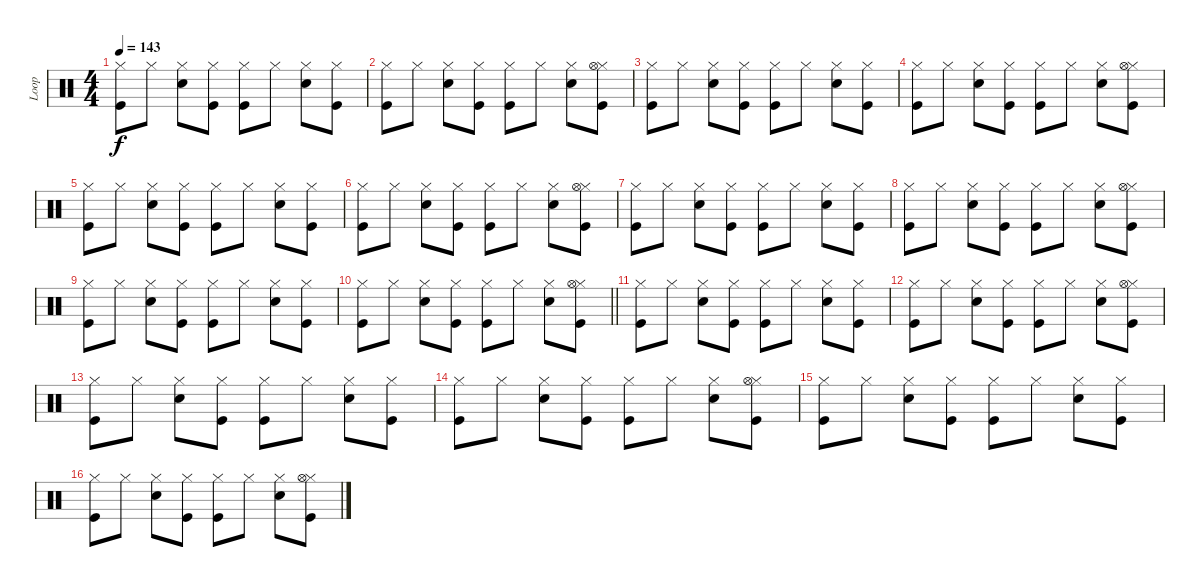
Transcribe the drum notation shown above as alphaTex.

\track ("Loop" "Loop") {instrument percussion}
\staff {score}
\articulation defaults
\ts (4 4)
\tempo 143
\clef neutral
\ks c
("Kick (hit)" "Hi-Hat (closed)").8{dy f} "Hi-Hat (closed)".8 ("Snare (hit) 2" "Hi-Hat (closed)").8 ("Hi-Hat (closed)" "Kick (hit)").8 ("Hi-Hat (closed)" "Kick (hit)").8 "Hi-Hat (closed)".8 ("Hi-Hat (closed)" "Snare (hit) 2").8 ("Hi-Hat (closed)" "Kick (hit)").8 |
("Kick (hit)" "Hi-Hat (closed)").8 "Hi-Hat (closed)".8 ("Snare (hit) 2" "Hi-Hat (closed)").8 ("Hi-Hat (closed)" "Kick (hit)").8 ("Hi-Hat (closed)" "Kick (hit)").8 "Hi-Hat (closed)".8 ("Hi-Hat (closed)" "Snare (hit) 2").8 ("Hi-Hat (closed)" "Kick (hit)" "Hi-Hat (open)").8 |
("Kick (hit)" "Hi-Hat (closed)").8 "Hi-Hat (closed)".8 ("Snare (hit) 2" "Hi-Hat (closed)").8 ("Hi-Hat (closed)" "Kick (hit)").8 ("Hi-Hat (closed)" "Kick (hit)").8 "Hi-Hat (closed)".8 ("Hi-Hat (closed)" "Snare (hit) 2").8 ("Hi-Hat (closed)" "Kick (hit)").8 |
("Kick (hit)" "Hi-Hat (closed)").8 "Hi-Hat (closed)".8 ("Snare (hit) 2" "Hi-Hat (closed)").8 ("Hi-Hat (closed)" "Kick (hit)").8 ("Hi-Hat (closed)" "Kick (hit)").8 "Hi-Hat (closed)".8 ("Hi-Hat (closed)" "Snare (hit) 2").8 ("Hi-Hat (closed)" "Kick (hit)" "Hi-Hat (open)").8 |
("Kick (hit)" "Hi-Hat (closed)").8 "Hi-Hat (closed)".8 ("Snare (hit) 2" "Hi-Hat (closed)").8 ("Hi-Hat (closed)" "Kick (hit)").8 ("Hi-Hat (closed)" "Kick (hit)").8 "Hi-Hat (closed)".8 ("Hi-Hat (closed)" "Snare (hit) 2").8 ("Hi-Hat (closed)" "Kick (hit)").8 |
("Kick (hit)" "Hi-Hat (closed)").8 "Hi-Hat (closed)".8 ("Snare (hit) 2" "Hi-Hat (closed)").8 ("Hi-Hat (closed)" "Kick (hit)").8 ("Hi-Hat (closed)" "Kick (hit)").8 "Hi-Hat (closed)".8 ("Hi-Hat (closed)" "Snare (hit) 2").8 ("Hi-Hat (closed)" "Kick (hit)" "Hi-Hat (open)").8 |
("Kick (hit)" "Hi-Hat (closed)").8 "Hi-Hat (closed)".8 ("Snare (hit) 2" "Hi-Hat (closed)").8 ("Hi-Hat (closed)" "Kick (hit)").8 ("Hi-Hat (closed)" "Kick (hit)").8 "Hi-Hat (closed)".8 ("Hi-Hat (closed)" "Snare (hit) 2").8 ("Hi-Hat (closed)" "Kick (hit)").8 |
("Kick (hit)" "Hi-Hat (closed)").8 "Hi-Hat (closed)".8 ("Snare (hit) 2" "Hi-Hat (closed)").8 ("Hi-Hat (closed)" "Kick (hit)").8 ("Hi-Hat (closed)" "Kick (hit)").8 "Hi-Hat (closed)".8 ("Hi-Hat (closed)" "Snare (hit) 2").8 ("Hi-Hat (closed)" "Kick (hit)" "Hi-Hat (open)").8 |
("Kick (hit)" "Hi-Hat (closed)").8 "Hi-Hat (closed)".8 ("Snare (hit) 2" "Hi-Hat (closed)").8 ("Hi-Hat (closed)" "Kick (hit)").8 ("Hi-Hat (closed)" "Kick (hit)").8 "Hi-Hat (closed)".8 ("Hi-Hat (closed)" "Snare (hit) 2").8 ("Hi-Hat (closed)" "Kick (hit)").8 |
\barLineRight lightlight
("Kick (hit)" "Hi-Hat (closed)").8 "Hi-Hat (closed)".8 ("Snare (hit) 2" "Hi-Hat (closed)").8 ("Hi-Hat (closed)" "Kick (hit)").8 ("Hi-Hat (closed)" "Kick (hit)").8 "Hi-Hat (closed)".8 ("Hi-Hat (closed)" "Snare (hit) 2").8 ("Hi-Hat (closed)" "Kick (hit)" "Hi-Hat (open)").8 |
("Kick (hit)" "Hi-Hat (closed)").8 "Hi-Hat (closed)".8 ("Snare (hit) 2" "Hi-Hat (closed)").8 ("Hi-Hat (closed)" "Kick (hit)").8 ("Hi-Hat (closed)" "Kick (hit)").8 "Hi-Hat (closed)".8 ("Hi-Hat (closed)" "Snare (hit) 2").8 ("Hi-Hat (closed)" "Kick (hit)").8 |
("Kick (hit)" "Hi-Hat (closed)").8 "Hi-Hat (closed)".8 ("Snare (hit) 2" "Hi-Hat (closed)").8 ("Hi-Hat (closed)" "Kick (hit)").8 ("Hi-Hat (closed)" "Kick (hit)").8 "Hi-Hat (closed)".8 ("Hi-Hat (closed)" "Snare (hit) 2").8 ("Hi-Hat (closed)" "Kick (hit)" "Hi-Hat (open)").8 |
("Kick (hit)" "Hi-Hat (closed)").8 "Hi-Hat (closed)".8 ("Snare (hit) 2" "Hi-Hat (closed)").8 ("Hi-Hat (closed)" "Kick (hit)").8 ("Hi-Hat (closed)" "Kick (hit)").8 "Hi-Hat (closed)".8 ("Hi-Hat (closed)" "Snare (hit) 2").8 ("Hi-Hat (closed)" "Kick (hit)").8 |
("Kick (hit)" "Hi-Hat (closed)").8 "Hi-Hat (closed)".8 ("Snare (hit) 2" "Hi-Hat (closed)").8 ("Hi-Hat (closed)" "Kick (hit)").8 ("Hi-Hat (closed)" "Kick (hit)").8 "Hi-Hat (closed)".8 ("Hi-Hat (closed)" "Snare (hit) 2").8 ("Hi-Hat (closed)" "Kick (hit)" "Hi-Hat (open)").8 |
("Kick (hit)" "Hi-Hat (closed)").8 "Hi-Hat (closed)".8 ("Snare (hit) 2" "Hi-Hat (closed)").8 ("Hi-Hat (closed)" "Kick (hit)").8 ("Hi-Hat (closed)" "Kick (hit)").8 "Hi-Hat (closed)".8 ("Hi-Hat (closed)" "Snare (hit) 2").8 ("Hi-Hat (closed)" "Kick (hit)").8 |
("Kick (hit)" "Hi-Hat (closed)").8 "Hi-Hat (closed)".8 ("Snare (hit) 2" "Hi-Hat (closed)").8 ("Hi-Hat (closed)" "Kick (hit)").8 ("Hi-Hat (closed)" "Kick (hit)").8 "Hi-Hat (closed)".8 ("Hi-Hat (closed)" "Snare (hit) 2").8 ("Hi-Hat (closed)" "Kick (hit)" "Hi-Hat (open)").8
